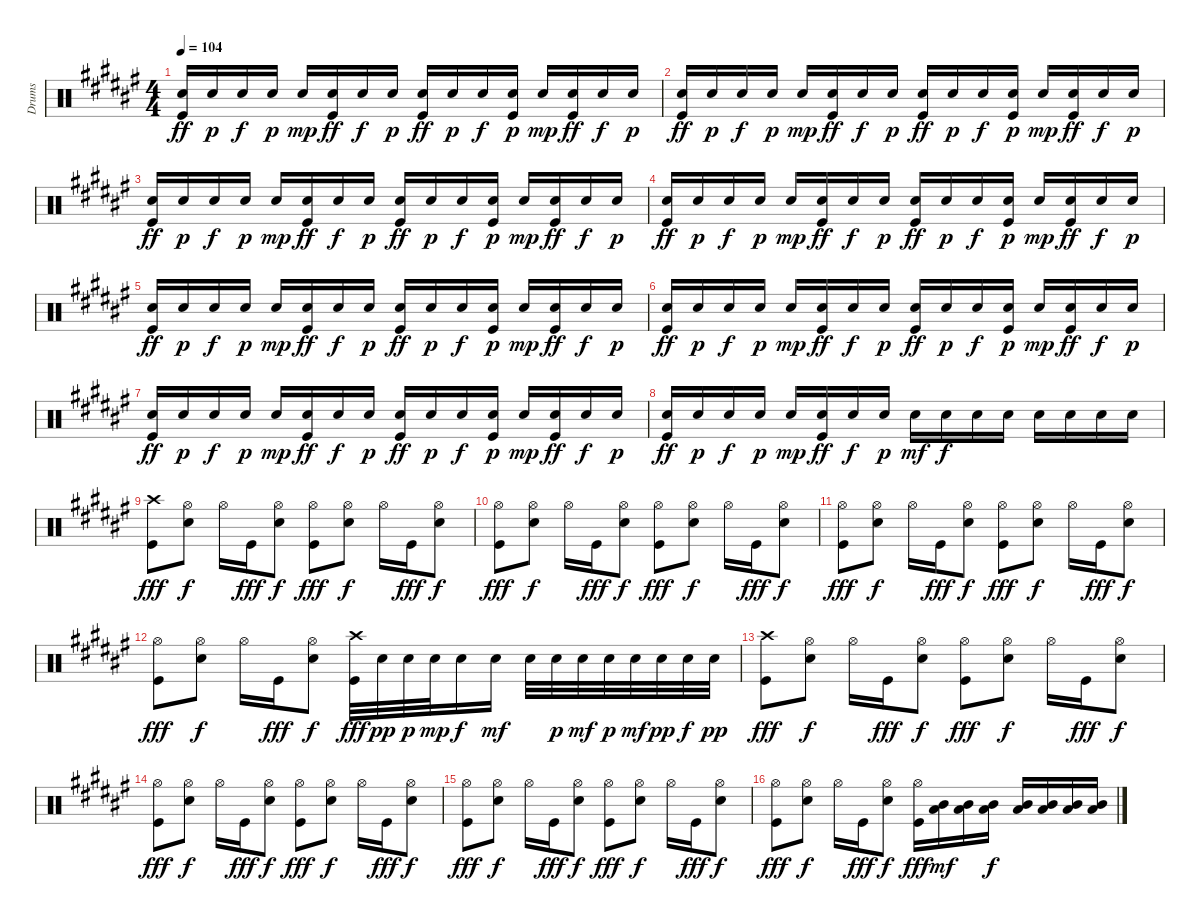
\track ("Drums" "Drums") {instrument percussion}
\staff {score}
\articulation defaults
\ts (4 4)
\tempo 104
\clef neutral
\ks f#
("Snare (hit) 2" "Kick (hit)").16{dy ff} "Snare (hit) 2".16{dy p} "Snare (hit) 2".16{dy f} "Snare (hit) 2".16{dy p} "Snare (hit) 2".16{dy mp} ("Snare (hit) 2" "Kick (hit)").16{dy ff} "Snare (hit) 2".16{dy f} "Snare (hit) 2".16{dy p} ("Snare (hit) 2" "Kick (hit)").16{dy ff} "Snare (hit) 2".16{dy p} "Snare (hit) 2".16{dy f} ("Snare (hit) 2" "Kick (hit)").16{dy p} "Snare (hit) 2".16{dy mp} ("Snare (hit) 2" "Kick (hit)").16{dy ff} "Snare (hit) 2".16{dy f} "Snare (hit) 2".16{dy p} |
("Snare (hit) 2" "Kick (hit)").16{dy ff} "Snare (hit) 2".16{dy p} "Snare (hit) 2".16{dy f} "Snare (hit) 2".16{dy p} "Snare (hit) 2".16{dy mp} ("Snare (hit) 2" "Kick (hit)").16{dy ff} "Snare (hit) 2".16{dy f} "Snare (hit) 2".16{dy p} ("Snare (hit) 2" "Kick (hit)").16{dy ff} "Snare (hit) 2".16{dy p} "Snare (hit) 2".16{dy f} ("Snare (hit) 2" "Kick (hit)").16{dy p} "Snare (hit) 2".16{dy mp} ("Snare (hit) 2" "Kick (hit)").16{dy ff} "Snare (hit) 2".16{dy f} "Snare (hit) 2".16{dy p} |
("Snare (hit) 2" "Kick (hit)").16{dy ff} "Snare (hit) 2".16{dy p} "Snare (hit) 2".16{dy f} "Snare (hit) 2".16{dy p} "Snare (hit) 2".16{dy mp} ("Snare (hit) 2" "Kick (hit)").16{dy ff} "Snare (hit) 2".16{dy f} "Snare (hit) 2".16{dy p} ("Snare (hit) 2" "Kick (hit)").16{dy ff} "Snare (hit) 2".16{dy p} "Snare (hit) 2".16{dy f} ("Snare (hit) 2" "Kick (hit)").16{dy p} "Snare (hit) 2".16{dy mp} ("Snare (hit) 2" "Kick (hit)").16{dy ff} "Snare (hit) 2".16{dy f} "Snare (hit) 2".16{dy p} |
("Snare (hit) 2" "Kick (hit)").16{dy ff} "Snare (hit) 2".16{dy p} "Snare (hit) 2".16{dy f} "Snare (hit) 2".16{dy p} "Snare (hit) 2".16{dy mp} ("Snare (hit) 2" "Kick (hit)").16{dy ff} "Snare (hit) 2".16{dy f} "Snare (hit) 2".16{dy p} ("Snare (hit) 2" "Kick (hit)").16{dy ff} "Snare (hit) 2".16{dy p} "Snare (hit) 2".16{dy f} ("Snare (hit) 2" "Kick (hit)").16{dy p} "Snare (hit) 2".16{dy mp} ("Snare (hit) 2" "Kick (hit)").16{dy ff} "Snare (hit) 2".16{dy f} "Snare (hit) 2".16{dy p} |
("Snare (hit) 2" "Kick (hit)").16{dy ff} "Snare (hit) 2".16{dy p} "Snare (hit) 2".16{dy f} "Snare (hit) 2".16{dy p} "Snare (hit) 2".16{dy mp} ("Snare (hit) 2" "Kick (hit)").16{dy ff} "Snare (hit) 2".16{dy f} "Snare (hit) 2".16{dy p} ("Snare (hit) 2" "Kick (hit)").16{dy ff} "Snare (hit) 2".16{dy p} "Snare (hit) 2".16{dy f} ("Snare (hit) 2" "Kick (hit)").16{dy p} "Snare (hit) 2".16{dy mp} ("Snare (hit) 2" "Kick (hit)").16{dy ff} "Snare (hit) 2".16{dy f} "Snare (hit) 2".16{dy p} |
("Snare (hit) 2" "Kick (hit)").16{dy ff} "Snare (hit) 2".16{dy p} "Snare (hit) 2".16{dy f} "Snare (hit) 2".16{dy p} "Snare (hit) 2".16{dy mp} ("Snare (hit) 2" "Kick (hit)").16{dy ff} "Snare (hit) 2".16{dy f} "Snare (hit) 2".16{dy p} ("Snare (hit) 2" "Kick (hit)").16{dy ff} "Snare (hit) 2".16{dy p} "Snare (hit) 2".16{dy f} ("Snare (hit) 2" "Kick (hit)").16{dy p} "Snare (hit) 2".16{dy mp} ("Snare (hit) 2" "Kick (hit)").16{dy ff} "Snare (hit) 2".16{dy f} "Snare (hit) 2".16{dy p} |
("Snare (hit) 2" "Kick (hit)").16{dy ff} "Snare (hit) 2".16{dy p} "Snare (hit) 2".16{dy f} "Snare (hit) 2".16{dy p} "Snare (hit) 2".16{dy mp} ("Snare (hit) 2" "Kick (hit)").16{dy ff} "Snare (hit) 2".16{dy f} "Snare (hit) 2".16{dy p} ("Snare (hit) 2" "Kick (hit)").16{dy ff} "Snare (hit) 2".16{dy p} "Snare (hit) 2".16{dy f} ("Snare (hit) 2" "Kick (hit)").16{dy p} "Snare (hit) 2".16{dy mp} ("Snare (hit) 2" "Kick (hit)").16{dy ff} "Snare (hit) 2".16{dy f} "Snare (hit) 2".16{dy p} |
("Snare (hit) 2" "Kick (hit)").16{dy ff} "Snare (hit) 2".16{dy p} "Snare (hit) 2".16{dy f} "Snare (hit) 2".16{dy p} "Snare (hit) 2".16{dy mp} ("Snare (hit) 2" "Kick (hit)").16{dy ff} "Snare (hit) 2".16{dy f} "Snare (hit) 2".16{dy p} "Snare (hit) 2".16{dy mf} "Snare (hit) 2".16{dy f} "Snare (hit) 2".16 "Snare (hit) 2".16 "Snare (hit) 2".16 "Snare (hit) 2".16 "Snare (hit) 2".16 "Snare (hit) 2".16 |
("Crash high (hit)" "Kick (hit)").8{dy fff} ("Hi-Hat (open)" "Snare (hit) 2").8{dy f} "Hi-Hat (open)".16 "Kick (hit)".16{dy fff} ("Hi-Hat (open)" "Snare (hit) 2").8{dy f} ("Hi-Hat (open)" "Kick (hit)").8{dy fff} ("Hi-Hat (open)" "Snare (hit) 2").8{dy f} "Hi-Hat (open)".16 "Kick (hit)".16{dy fff} ("Hi-Hat (open)" "Snare (hit) 2").8{dy f} |
("Hi-Hat (open)" "Kick (hit)").8{dy fff} ("Hi-Hat (open)" "Snare (hit) 2").8{dy f} "Hi-Hat (open)".16 "Kick (hit)".16{dy fff} ("Hi-Hat (open)" "Snare (hit) 2").8{dy f} ("Hi-Hat (open)" "Kick (hit)").8{dy fff} ("Hi-Hat (open)" "Snare (hit) 2").8{dy f} "Hi-Hat (open)".16 "Kick (hit)".16{dy fff} ("Hi-Hat (open)" "Snare (hit) 2").8{dy f} |
("Hi-Hat (open)" "Kick (hit)").8{dy fff} ("Hi-Hat (open)" "Snare (hit) 2").8{dy f} "Hi-Hat (open)".16 "Kick (hit)".16{dy fff} ("Hi-Hat (open)" "Snare (hit) 2").8{dy f} ("Hi-Hat (open)" "Kick (hit)").8{dy fff} ("Hi-Hat (open)" "Snare (hit) 2").8{dy f} "Hi-Hat (open)".16 "Kick (hit)".16{dy fff} ("Hi-Hat (open)" "Snare (hit) 2").8{dy f} |
("Hi-Hat (open)" "Kick (hit)").8{dy fff} ("Hi-Hat (open)" "Snare (hit) 2").8{dy f} "Hi-Hat (open)".16 "Kick (hit)".16{dy fff} ("Hi-Hat (open)" "Snare (hit) 2").8{dy f} ("Crash high (hit)" "Kick (hit)").32{dy fff} "Snare (hit) 2".32{dy pp} "Snare (hit) 2".32{dy p} "Snare (hit) 2".32{dy mp} "Snare (hit) 2".16{dy f} "Snare (hit) 2".16{dy mf} "Snare (hit) 2".32 "Snare (hit) 2".32{dy p} "Snare (hit) 2".32{dy mf} "Snare (hit) 2".32{dy p} "Snare (hit) 2".32{dy mf} "Snare (hit) 2".32{dy pp} "Snare (hit) 2".32{dy f} "Snare (hit) 2".32{dy pp} |
("Crash high (hit)" "Kick (hit)").8{dy fff} ("Hi-Hat (open)" "Snare (hit) 2").8{dy f} "Hi-Hat (open)".16 "Kick (hit)".16{dy fff} ("Hi-Hat (open)" "Snare (hit) 2").8{dy f} ("Hi-Hat (open)" "Kick (hit)").8{dy fff} ("Hi-Hat (open)" "Snare (hit) 2").8{dy f} "Hi-Hat (open)".16 "Kick (hit)".16{dy fff} ("Hi-Hat (open)" "Snare (hit) 2").8{dy f} |
("Hi-Hat (open)" "Kick (hit)").8{dy fff} ("Hi-Hat (open)" "Snare (hit) 2").8{dy f} "Hi-Hat (open)".16 "Kick (hit)".16{dy fff} ("Hi-Hat (open)" "Snare (hit) 2").8{dy f} ("Hi-Hat (open)" "Kick (hit)").8{dy fff} ("Hi-Hat (open)" "Snare (hit) 2").8{dy f} "Hi-Hat (open)".16 "Kick (hit)".16{dy fff} ("Hi-Hat (open)" "Snare (hit) 2").8{dy f} |
("Hi-Hat (open)" "Kick (hit)").8{dy fff} ("Hi-Hat (open)" "Snare (hit) 2").8{dy f} "Hi-Hat (open)".16 "Kick (hit)".16{dy fff} ("Hi-Hat (open)" "Snare (hit) 2").8{dy f} ("Hi-Hat (open)" "Kick (hit)").8{dy fff} ("Hi-Hat (open)" "Snare (hit) 2").8{dy f} "Hi-Hat (open)".16 "Kick (hit)".16{dy fff} ("Hi-Hat (open)" "Snare (hit) 2").8{dy f} |
("Hi-Hat (open)" "Kick (hit)").8{dy fff} ("Hi-Hat (open)" "Snare (hit) 2").8{dy f} "Hi-Hat (open)".16 "Kick (hit)".16{dy fff} ("Hi-Hat (open)" "Snare (hit) 2").8{dy f} ("Hi-Hat (open)" "Kick (hit)").16{dy fff} ("Low Tom (hit)" "Mid Tom (hit)").16{dy mf} ("Low Tom (hit)" "Mid Tom (hit)").16 ("Low Tom (hit)" "Mid Tom (hit)").16{dy f} ("Low Tom (hit)" "Mid Tom (hit)").16 ("Low Tom (hit)" "Mid Tom (hit)").16 ("Low Tom (hit)" "Mid Tom (hit)").16 ("Low Tom (hit)" "Mid Tom (hit)").16
